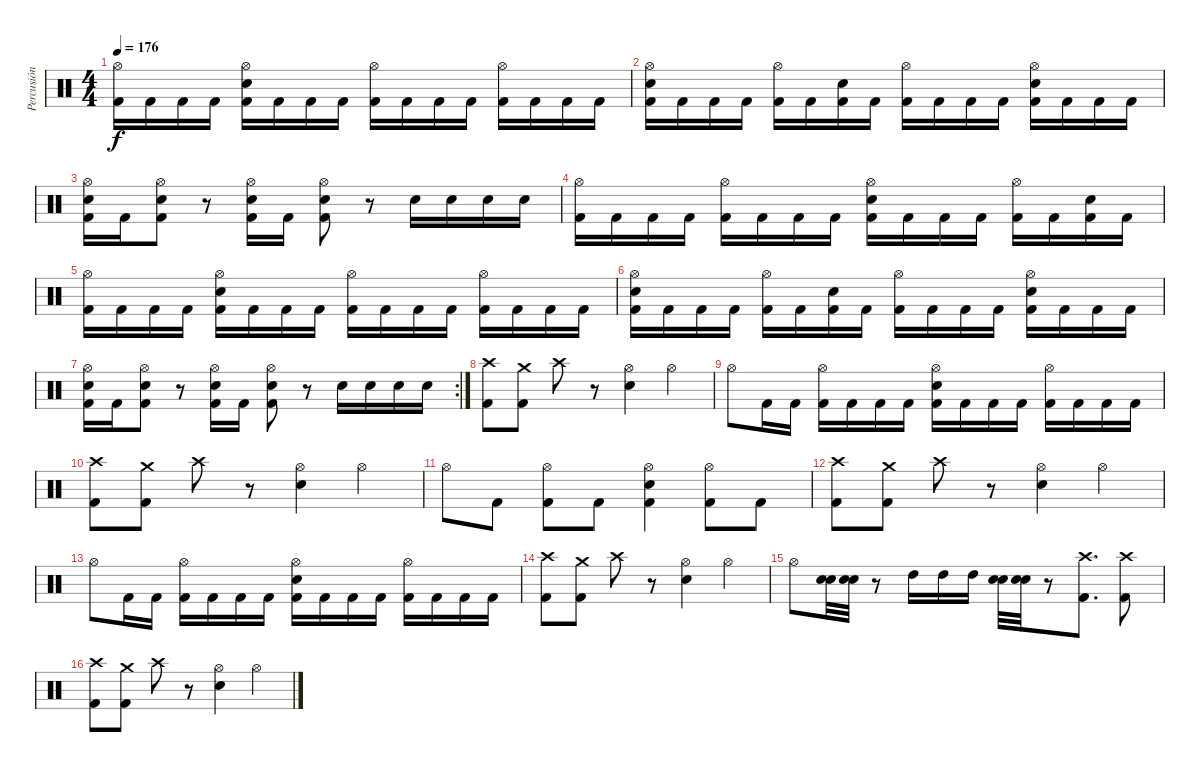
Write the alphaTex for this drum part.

\track ("Percusión" "Percusión") {instrument percussion}
\staff {score}
\articulation defaults
\ts (4 4)
\tempo 176
\clef neutral
\ks c
("Hi-Hat (open)" "Kick (hit) 2").16{dy f} "Kick (hit) 2".16 "Kick (hit) 2".16 "Kick (hit) 2".16 ("Hi-Hat (open)" "Electric Snare (hit)" "Kick (hit) 2").16 "Kick (hit) 2".16 "Kick (hit) 2".16 "Kick (hit) 2".16 ("Hi-Hat (open)" "Kick (hit) 2").16 "Kick (hit) 2".16 "Kick (hit) 2".16 "Kick (hit) 2".16 ("Hi-Hat (open)" "Kick (hit) 2").16 "Kick (hit) 2".16 "Kick (hit) 2".16 "Kick (hit) 2".16 |
("Hi-Hat (open)" "Electric Snare (hit)" "Kick (hit) 2").16 "Kick (hit) 2".16 "Kick (hit) 2".16 "Kick (hit) 2".16 ("Hi-Hat (open)" "Kick (hit) 2").16 "Kick (hit) 2".16 ("Electric Snare (hit)" "Kick (hit) 2").16 "Kick (hit) 2".16 ("Hi-Hat (open)" "Kick (hit) 2").16 "Kick (hit) 2".16 "Kick (hit) 2".16 "Kick (hit) 2".16 ("Hi-Hat (open)" "Electric Snare (hit)" "Kick (hit) 2").16 "Kick (hit) 2".16 "Kick (hit) 2".16 "Kick (hit) 2".16 |
("Hi-Hat (open)" "Electric Snare (hit)" "Kick (hit) 2").16 "Kick (hit) 2".16 ("Hi-Hat (open)" "Electric Snare (hit)" "Kick (hit) 2").8 r.8 ("Hi-Hat (open)" "Electric Snare (hit)" "Kick (hit) 2").16 "Kick (hit) 2".16 ("Hi-Hat (open)" "Electric Snare (hit)" "Kick (hit) 2").8 r.8 "Electric Snare (hit)".16 "Electric Snare (hit)".16 "Electric Snare (hit)".16 "Electric Snare (hit)".16 |
("Hi-Hat (open)" "Kick (hit) 2").16 "Kick (hit) 2".16 "Kick (hit) 2".16 "Kick (hit) 2".16 ("Hi-Hat (open)" "Kick (hit) 2").16 "Kick (hit) 2".16 "Kick (hit) 2".16 "Kick (hit) 2".16 ("Hi-Hat (open)" "Electric Snare (hit)" "Kick (hit) 2").16 "Kick (hit) 2".16 "Kick (hit) 2".16 "Kick (hit) 2".16 ("Hi-Hat (open)" "Kick (hit) 2").16 "Kick (hit) 2".16 ("Electric Snare (hit)" "Kick (hit) 2").16 "Kick (hit) 2".16 |
("Hi-Hat (open)" "Kick (hit) 2").16 "Kick (hit) 2".16 "Kick (hit) 2".16 "Kick (hit) 2".16 ("Hi-Hat (open)" "Electric Snare (hit)" "Kick (hit) 2").16 "Kick (hit) 2".16 "Kick (hit) 2".16 "Kick (hit) 2".16 ("Hi-Hat (open)" "Kick (hit) 2").16 "Kick (hit) 2".16 "Kick (hit) 2".16 "Kick (hit) 2".16 ("Hi-Hat (open)" "Kick (hit) 2").16 "Kick (hit) 2".16 "Kick (hit) 2".16 "Kick (hit) 2".16 |
("Hi-Hat (open)" "Electric Snare (hit)" "Kick (hit) 2").16 "Kick (hit) 2".16 "Kick (hit) 2".16 "Kick (hit) 2".16 ("Hi-Hat (open)" "Kick (hit) 2").16 "Kick (hit) 2".16 ("Electric Snare (hit)" "Kick (hit) 2").16 "Kick (hit) 2".16 ("Hi-Hat (open)" "Kick (hit) 2").16 "Kick (hit) 2".16 "Kick (hit) 2".16 "Kick (hit) 2".16 ("Hi-Hat (open)" "Electric Snare (hit)" "Kick (hit) 2").16 "Kick (hit) 2".16 "Kick (hit) 2".16 "Kick (hit) 2".16 |
\rc 2
("Hi-Hat (open)" "Electric Snare (hit)" "Kick (hit) 2").16 "Kick (hit) 2".16 ("Hi-Hat (open)" "Electric Snare (hit)" "Kick (hit) 2").8 r.8 ("Hi-Hat (open)" "Electric Snare (hit)" "Kick (hit) 2").16 "Kick (hit) 2".16 ("Hi-Hat (open)" "Electric Snare (hit)" "Kick (hit) 2").8 r.8 "Electric Snare (hit)".16 "Electric Snare (hit)".16 "Electric Snare (hit)".16 "Electric Snare (hit)".16 |
("Crash high (hit)" "Kick (hit) 2").8 ("Crash medium (hit)" "Kick (hit) 2").8 "Crash high (hit)".8 r.8 ("Hi-Hat (open)" "Electric Snare (hit)").4 "Hi-Hat (open)".4 |
"Hi-Hat (open)".8 "Kick (hit) 2".16 "Kick (hit) 2".16 ("Hi-Hat (open)" "Kick (hit) 2").16 "Kick (hit) 2".16 "Kick (hit) 2".16 "Kick (hit) 2".16 ("Hi-Hat (open)" "Electric Snare (hit)" "Kick (hit) 2").16 "Kick (hit) 2".16 "Kick (hit) 2".16 "Kick (hit) 2".16 ("Hi-Hat (open)" "Kick (hit) 2").16 "Kick (hit) 2".16 "Kick (hit) 2".16 "Kick (hit) 2".16 |
("Crash high (hit)" "Kick (hit) 2").8 ("Crash medium (hit)" "Kick (hit) 2").8 "Crash high (hit)".8 r.8 ("Hi-Hat (open)" "Electric Snare (hit)").4 "Hi-Hat (open)".4 |
"Hi-Hat (open)".8 "Kick (hit) 2".8 ("Hi-Hat (open)" "Kick (hit) 2").8 "Kick (hit) 2".8 ("Hi-Hat (open)" "Electric Snare (hit)" "Kick (hit) 2").4 ("Hi-Hat (open)" "Kick (hit) 2").8 "Kick (hit) 2".8 |
("Crash high (hit)" "Kick (hit) 2").8 ("Crash medium (hit)" "Kick (hit) 2").8 "Crash high (hit)".8 r.8 ("Hi-Hat (open)" "Electric Snare (hit)").4 "Hi-Hat (open)".4 |
"Hi-Hat (open)".8 "Kick (hit) 2".16 "Kick (hit) 2".16 ("Hi-Hat (open)" "Kick (hit) 2").16 "Kick (hit) 2".16 "Kick (hit) 2".16 "Kick (hit) 2".16 ("Hi-Hat (open)" "Electric Snare (hit)" "Kick (hit) 2").16 "Kick (hit) 2".16 "Kick (hit) 2".16 "Kick (hit) 2".16 ("Hi-Hat (open)" "Kick (hit) 2").16 "Kick (hit) 2".16 "Kick (hit) 2".16 "Kick (hit) 2".16 |
("Crash high (hit)" "Kick (hit) 2").8 ("Crash medium (hit)" "Kick (hit) 2").8 "Crash high (hit)".8 r.8 ("Hi-Hat (open)" "Electric Snare (hit)").4 "Hi-Hat (open)".4 |
"Hi-Hat (open)".8 ("Electric Snare (hit)" "Electric Snare (hit)").32 ("Electric Snare (hit)" "Electric Snare (hit)").32 r.8 "High Tom (hit)".16 "High Tom (hit)".16 "High Tom (hit)".16 ("Electric Snare (hit)" "Electric Snare (hit)").32 ("Electric Snare (hit)" "Electric Snare (hit)").32 r.8 ("Crash high (hit)" "Kick (hit) 2").8{d} ("Crash high (hit)" "Kick (hit) 2").8 |
("Crash high (hit)" "Kick (hit) 2").8 ("Crash medium (hit)" "Kick (hit) 2").8 "Crash high (hit)".8 r.8 ("Hi-Hat (open)" "Electric Snare (hit)").4 "Hi-Hat (open)".4
